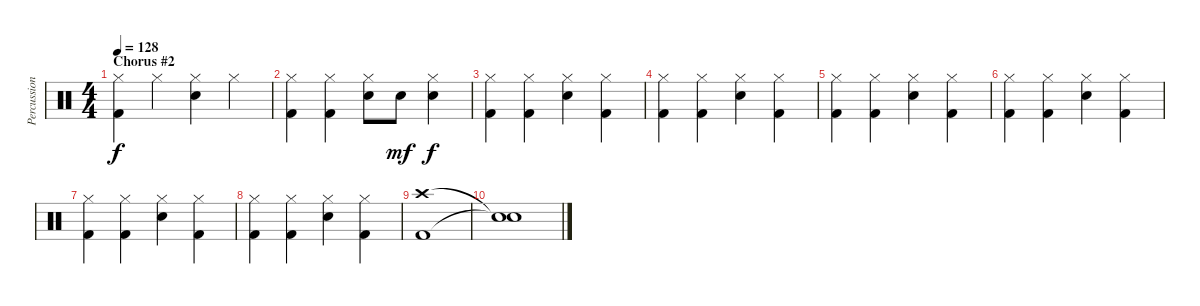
\track ("Percussion" "Percussion") {instrument percussion}
\staff {score}
\articulation defaults
\ts (4 4)
\section ("" "Chorus #2")
\tempo 128
\clef neutral
\ks c
("Hi-Hat (closed)" "Kick (hit) 2").4{dy f} "Hi-Hat (closed)".4 ("Hi-Hat (closed)" "Electric Snare (hit)").4 "Hi-Hat (closed)".4 |
("Hi-Hat (closed)" "Kick (hit) 2").4 ("Hi-Hat (closed)" "Kick (hit) 2").4 ("Hi-Hat (closed)" "Electric Snare (hit)").8 "Electric Snare (hit)".8{dy mf} ("Hi-Hat (closed)" "Electric Snare (hit)").4{dy f} |
("Hi-Hat (closed)" "Kick (hit) 2").4 ("Hi-Hat (closed)" "Kick (hit) 2").4 ("Hi-Hat (closed)" "Electric Snare (hit)").4 ("Hi-Hat (closed)" "Kick (hit) 2").4 |
("Hi-Hat (closed)" "Kick (hit) 2").4 ("Hi-Hat (closed)" "Kick (hit) 2").4 ("Hi-Hat (closed)" "Electric Snare (hit)").4 ("Hi-Hat (closed)" "Kick (hit) 2").4 |
("Hi-Hat (closed)" "Kick (hit) 2").4 ("Hi-Hat (closed)" "Kick (hit) 2").4 ("Hi-Hat (closed)" "Electric Snare (hit)").4 ("Hi-Hat (closed)" "Kick (hit) 2").4 |
("Hi-Hat (closed)" "Kick (hit) 2").4 ("Hi-Hat (closed)" "Kick (hit) 2").4 ("Hi-Hat (closed)" "Electric Snare (hit)").4 ("Hi-Hat (closed)" "Kick (hit) 2").4 |
("Hi-Hat (closed)" "Kick (hit) 2").4 ("Hi-Hat (closed)" "Kick (hit) 2").4 ("Hi-Hat (closed)" "Electric Snare (hit)").4 ("Hi-Hat (closed)" "Kick (hit) 2").4 |
("Hi-Hat (closed)" "Kick (hit) 2").4 ("Hi-Hat (closed)" "Kick (hit) 2").4 ("Hi-Hat (closed)" "Electric Snare (hit)").4 ("Hi-Hat (closed)" "Kick (hit) 2").4 |
("Crash high (hit)" "Kick (hit) 2").1 |
("Snare (hit)"{t} "Snare (hit)"{t}).1
